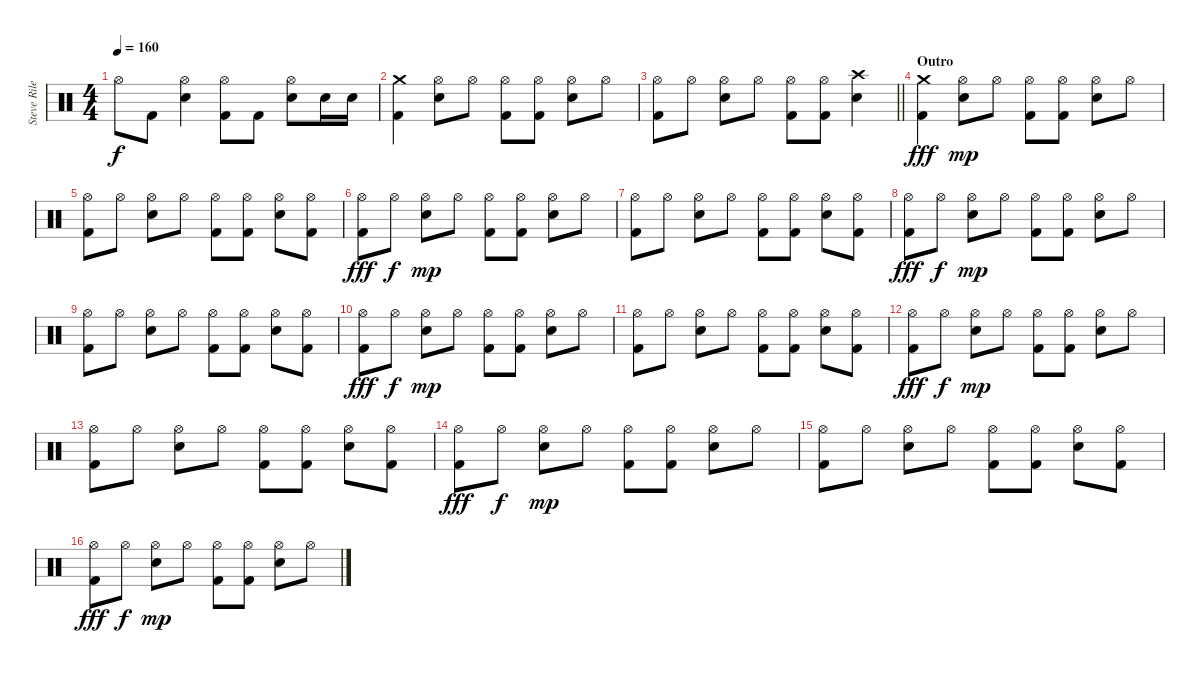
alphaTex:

\track ("Steve Riley" "Steve Rile") {instrument percussion}
\staff {score}
\articulation defaults
\ts (4 4)
\tempo 160
\clef neutral
\ks c "Hi-Hat (open)".8{dy f} "Kick (hit) 2".8
("Hi-Hat (open)" "Snare (hit) 2").4 ("Hi-Hat (open)" "Kick (hit) 2").8 "Kick (hit) 2".8 ("Hi-Hat (open)" "Snare (hit) 2").8 "Snare (hit) 2".16 "Snare (hit) 2".16 |
("Crash medium (hit)" "Kick (hit) 2").4 ("Hi-Hat (open)" "Snare (hit) 2").8 "Hi-Hat (open)".8 ("Hi-Hat (open)" "Kick (hit) 2").8 ("Hi-Hat (open)" "Kick (hit) 2").8 ("Hi-Hat (open)" "Snare (hit) 2").8 "Hi-Hat (open)".8 |
\barLineRight lightlight
("Hi-Hat (open)" "Kick (hit) 2").8 "Hi-Hat (open)".8 ("Hi-Hat (open)" "Snare (hit) 2").8 "Hi-Hat (open)".8 ("Hi-Hat (open)" "Kick (hit) 2").8 ("Hi-Hat (open)" "Kick (hit) 2").8 ("Crash high (hit)" "Snare (hit) 2").4 |
\section ("" "Outro")
("Crash medium (hit)" "Kick (hit) 2").4{dy fff} ("Hi-Hat (open)" "Snare (hit) 2").8{dy mp} "Hi-Hat (open)".8 ("Hi-Hat (open)" "Kick (hit) 2").8 ("Hi-Hat (open)" "Kick (hit) 2").8 ("Hi-Hat (open)" "Snare (hit) 2").8 "Hi-Hat (open)".8 |
("Hi-Hat (open)" "Kick (hit) 2").8 "Hi-Hat (open)".8 ("Hi-Hat (open)" "Snare (hit) 2").8 "Hi-Hat (open)".8 ("Hi-Hat (open)" "Kick (hit) 2").8 ("Hi-Hat (open)" "Kick (hit) 2").8 ("Hi-Hat (open)" "Snare (hit) 2").8 ("Hi-Hat (open)" "Kick (hit) 2").8 |
("Hi-Hat (open)" "Kick (hit) 2").8{dy fff} "Hi-Hat (open)".8{dy f} ("Hi-Hat (open)" "Snare (hit) 2").8{dy mp} "Hi-Hat (open)".8 ("Hi-Hat (open)" "Kick (hit) 2").8 ("Hi-Hat (open)" "Kick (hit) 2").8 ("Hi-Hat (open)" "Snare (hit) 2").8 "Hi-Hat (open)".8 |
("Hi-Hat (open)" "Kick (hit) 2").8 "Hi-Hat (open)".8 ("Hi-Hat (open)" "Snare (hit) 2").8 "Hi-Hat (open)".8 ("Hi-Hat (open)" "Kick (hit) 2").8 ("Hi-Hat (open)" "Kick (hit) 2").8 ("Hi-Hat (open)" "Snare (hit) 2").8 ("Hi-Hat (open)" "Kick (hit) 2").8 |
("Hi-Hat (open)" "Kick (hit) 2").8{dy fff} "Hi-Hat (open)".8{dy f} ("Hi-Hat (open)" "Snare (hit) 2").8{dy mp} "Hi-Hat (open)".8 ("Hi-Hat (open)" "Kick (hit) 2").8 ("Hi-Hat (open)" "Kick (hit) 2").8 ("Hi-Hat (open)" "Snare (hit) 2").8 "Hi-Hat (open)".8 |
("Hi-Hat (open)" "Kick (hit) 2").8 "Hi-Hat (open)".8 ("Hi-Hat (open)" "Snare (hit) 2").8 "Hi-Hat (open)".8 ("Hi-Hat (open)" "Kick (hit) 2").8 ("Hi-Hat (open)" "Kick (hit) 2").8 ("Hi-Hat (open)" "Snare (hit) 2").8 ("Hi-Hat (open)" "Kick (hit) 2").8 |
("Hi-Hat (open)" "Kick (hit) 2").8{dy fff} "Hi-Hat (open)".8{dy f} ("Hi-Hat (open)" "Snare (hit) 2").8{dy mp} "Hi-Hat (open)".8 ("Hi-Hat (open)" "Kick (hit) 2").8 ("Hi-Hat (open)" "Kick (hit) 2").8 ("Hi-Hat (open)" "Snare (hit) 2").8 "Hi-Hat (open)".8 |
("Hi-Hat (open)" "Kick (hit) 2").8 "Hi-Hat (open)".8 ("Hi-Hat (open)" "Snare (hit) 2").8 "Hi-Hat (open)".8 ("Hi-Hat (open)" "Kick (hit) 2").8 ("Hi-Hat (open)" "Kick (hit) 2").8 ("Hi-Hat (open)" "Snare (hit) 2").8 ("Hi-Hat (open)" "Kick (hit) 2").8 |
("Hi-Hat (open)" "Kick (hit) 2").8{dy fff} "Hi-Hat (open)".8{dy f} ("Hi-Hat (open)" "Snare (hit) 2").8{dy mp} "Hi-Hat (open)".8 ("Hi-Hat (open)" "Kick (hit) 2").8 ("Hi-Hat (open)" "Kick (hit) 2").8 ("Hi-Hat (open)" "Snare (hit) 2").8 "Hi-Hat (open)".8 |
("Hi-Hat (open)" "Kick (hit) 2").8 "Hi-Hat (open)".8 ("Hi-Hat (open)" "Snare (hit) 2").8 "Hi-Hat (open)".8 ("Hi-Hat (open)" "Kick (hit) 2").8 ("Hi-Hat (open)" "Kick (hit) 2").8 ("Hi-Hat (open)" "Snare (hit) 2").8 ("Hi-Hat (open)" "Kick (hit) 2").8 |
("Hi-Hat (open)" "Kick (hit) 2").8{dy fff} "Hi-Hat (open)".8{dy f} ("Hi-Hat (open)" "Snare (hit) 2").8{dy mp} "Hi-Hat (open)".8 ("Hi-Hat (open)" "Kick (hit) 2").8 ("Hi-Hat (open)" "Kick (hit) 2").8 ("Hi-Hat (open)" "Snare (hit) 2").8 "Hi-Hat (open)".8 |
("Hi-Hat (open)" "Kick (hit) 2").8 "Hi-Hat (open)".8 ("Hi-Hat (open)" "Snare (hit) 2").8 "Hi-Hat (open)".8 ("Hi-Hat (open)" "Kick (hit) 2").8 ("Hi-Hat (open)" "Kick (hit) 2").8 ("Hi-Hat (open)" "Snare (hit) 2").8 ("Hi-Hat (open)" "Kick (hit) 2").8 |
("Hi-Hat (open)" "Kick (hit) 2").8{dy fff} "Hi-Hat (open)".8{dy f} ("Hi-Hat (open)" "Snare (hit) 2").8{dy mp} "Hi-Hat (open)".8 ("Hi-Hat (open)" "Kick (hit) 2").8 ("Hi-Hat (open)" "Kick (hit) 2").8 ("Hi-Hat (open)" "Snare (hit) 2").8 "Hi-Hat (open)".8
